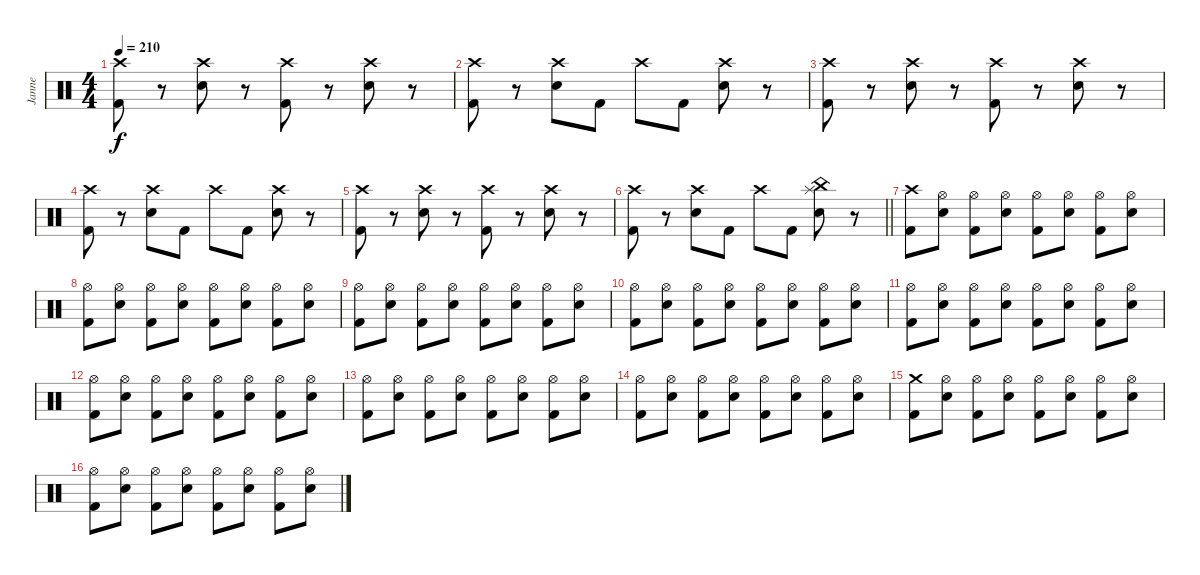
\track ("Janne" "Janne") {instrument percussion}
\staff {score}
\articulation defaults
\ts (4 4)
\tempo 210
\clef neutral
\ks c
("Crash high (hit)" "Kick (hit) 2").8{dy f} r.8 ("Crash high (hit)" "Electric Snare (hit)").8 r.8 ("Crash high (hit)" "Kick (hit) 2").8 r.8 ("Crash high (hit)" "Electric Snare (hit)").8 r.8 |
("Crash high (hit)" "Kick (hit) 2").8 r.8 ("Crash high (hit)" "Electric Snare (hit)").8 "Kick (hit) 2".8 "Crash high (hit)".8 "Kick (hit) 2".8 ("Crash high (hit)" "Electric Snare (hit)").8 r.8 |
("Crash high (hit)" "Kick (hit) 2").8 r.8 ("Crash high (hit)" "Electric Snare (hit)").8 r.8 ("Crash high (hit)" "Kick (hit) 2").8 r.8 ("Crash high (hit)" "Electric Snare (hit)").8 r.8 |
("Crash high (hit)" "Kick (hit) 2").8 r.8 ("Crash high (hit)" "Electric Snare (hit)").8 "Kick (hit) 2".8 "Crash high (hit)".8 "Kick (hit) 2".8 ("Crash high (hit)" "Electric Snare (hit)").8 r.8 |
("Crash high (hit)" "Kick (hit) 2").8 r.8 ("Crash high (hit)" "Electric Snare (hit)").8 r.8 ("Crash high (hit)" "Kick (hit) 2").8 r.8 ("Crash high (hit)" "Electric Snare (hit)").8 r.8 |
\barLineRight lightlight
("Crash high (hit)" "Kick (hit) 2").8 r.8 ("Crash high (hit)" "Electric Snare (hit)").8 "Kick (hit) 2".8 "Crash high (hit)".8 "Kick (hit) 2".8 ("China (hit)" "Splash (hit)" "Electric Snare (hit)").8 r.8 |
("Crash high (hit)" "Kick (hit) 2").8 ("Hi-Hat (open)" "Electric Snare (hit)").8 ("Hi-Hat (open)" "Kick (hit) 2").8 ("Hi-Hat (open)" "Electric Snare (hit)").8 ("Hi-Hat (open)" "Kick (hit) 2").8 ("Hi-Hat (open)" "Electric Snare (hit)").8 ("Hi-Hat (open)" "Kick (hit) 2").8 ("Hi-Hat (open)" "Electric Snare (hit)").8 |
("Hi-Hat (open)" "Kick (hit) 2").8 ("Hi-Hat (open)" "Electric Snare (hit)").8 ("Hi-Hat (open)" "Kick (hit) 2").8 ("Hi-Hat (open)" "Electric Snare (hit)").8 ("Hi-Hat (open)" "Kick (hit) 2").8 ("Hi-Hat (open)" "Electric Snare (hit)").8 ("Hi-Hat (open)" "Kick (hit) 2").8 ("Hi-Hat (open)" "Electric Snare (hit)").8 |
("Hi-Hat (open)" "Kick (hit) 2").8 ("Hi-Hat (open)" "Electric Snare (hit)").8 ("Hi-Hat (open)" "Kick (hit) 2").8 ("Hi-Hat (open)" "Electric Snare (hit)").8 ("Hi-Hat (open)" "Kick (hit) 2").8 ("Hi-Hat (open)" "Electric Snare (hit)").8 ("Hi-Hat (open)" "Kick (hit) 2").8 ("Hi-Hat (open)" "Electric Snare (hit)").8 |
("Hi-Hat (open)" "Kick (hit) 2").8 ("Hi-Hat (open)" "Electric Snare (hit)").8 ("Hi-Hat (open)" "Kick (hit) 2").8 ("Hi-Hat (open)" "Electric Snare (hit)").8 ("Hi-Hat (open)" "Kick (hit) 2").8 ("Hi-Hat (open)" "Electric Snare (hit)").8 ("Hi-Hat (open)" "Kick (hit) 2").8 ("Hi-Hat (open)" "Electric Snare (hit)").8 |
("Hi-Hat (open)" "Kick (hit) 2").8 ("Hi-Hat (open)" "Electric Snare (hit)").8 ("Hi-Hat (open)" "Kick (hit) 2").8 ("Hi-Hat (open)" "Electric Snare (hit)").8 ("Hi-Hat (open)" "Kick (hit) 2").8 ("Hi-Hat (open)" "Electric Snare (hit)").8 ("Hi-Hat (open)" "Kick (hit) 2").8 ("Hi-Hat (open)" "Electric Snare (hit)").8 |
("Hi-Hat (open)" "Kick (hit) 2").8 ("Hi-Hat (open)" "Electric Snare (hit)").8 ("Hi-Hat (open)" "Kick (hit) 2").8 ("Hi-Hat (open)" "Electric Snare (hit)").8 ("Hi-Hat (open)" "Kick (hit) 2").8 ("Hi-Hat (open)" "Electric Snare (hit)").8 ("Hi-Hat (open)" "Kick (hit) 2").8 ("Hi-Hat (open)" "Electric Snare (hit)").8 |
("Hi-Hat (open)" "Kick (hit) 2").8 ("Hi-Hat (open)" "Electric Snare (hit)").8 ("Hi-Hat (open)" "Kick (hit) 2").8 ("Hi-Hat (open)" "Electric Snare (hit)").8 ("Hi-Hat (open)" "Kick (hit) 2").8 ("Hi-Hat (open)" "Electric Snare (hit)").8 ("Hi-Hat (open)" "Kick (hit) 2").8 ("Hi-Hat (open)" "Electric Snare (hit)").8 |
("Hi-Hat (open)" "Kick (hit) 2").8 ("Hi-Hat (open)" "Electric Snare (hit)").8 ("Hi-Hat (open)" "Kick (hit) 2").8 ("Hi-Hat (open)" "Electric Snare (hit)").8 ("Hi-Hat (open)" "Kick (hit) 2").8 ("Hi-Hat (open)" "Electric Snare (hit)").8 ("Hi-Hat (open)" "Kick (hit) 2").8 ("Hi-Hat (open)" "Electric Snare (hit)").8 |
("Crash medium (hit)" "Kick (hit) 2").8 ("Hi-Hat (open)" "Electric Snare (hit)").8 ("Hi-Hat (open)" "Kick (hit) 2").8 ("Hi-Hat (open)" "Electric Snare (hit)").8 ("Hi-Hat (open)" "Kick (hit) 2").8 ("Hi-Hat (open)" "Electric Snare (hit)").8 ("Hi-Hat (open)" "Kick (hit) 2").8 ("Hi-Hat (open)" "Electric Snare (hit)").8 |
("Hi-Hat (open)" "Kick (hit) 2").8 ("Hi-Hat (open)" "Electric Snare (hit)").8 ("Hi-Hat (open)" "Kick (hit) 2").8 ("Hi-Hat (open)" "Electric Snare (hit)").8 ("Hi-Hat (open)" "Kick (hit) 2").8 ("Hi-Hat (open)" "Electric Snare (hit)").8 ("Hi-Hat (open)" "Kick (hit) 2").8 ("Hi-Hat (open)" "Electric Snare (hit)").8
